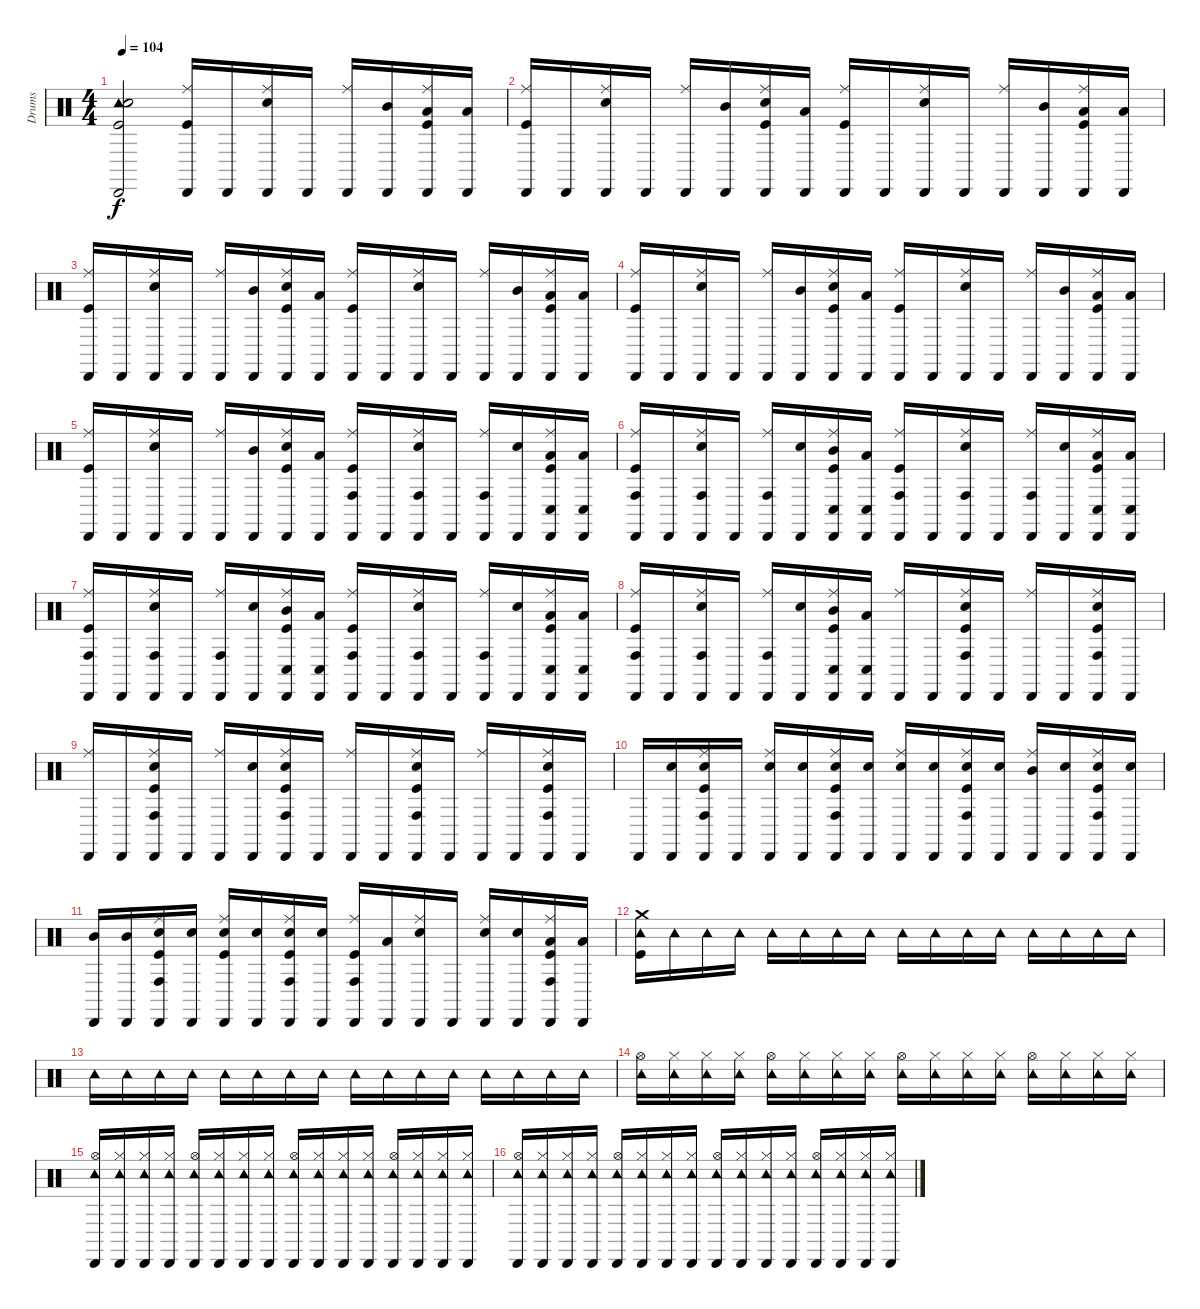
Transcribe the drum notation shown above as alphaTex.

\track ("Drums" "Drums") {instrument percussion}
\staff {score}
\articulation defaults
\ts (4 4)
\tempo 104
\clef neutral
\ks c
("Cabasa (hit)" "Tambourine (hit)" "Electric Snare (hit)" "Kick (hit)").2{dy f} ("Cabasa (hit)" "Ride (middle)" "Kick (hit)").16 "Cabasa (hit)".16 ("Cabasa (hit)" "Ride (middle)" "Electric Snare (hit)").16 "Cabasa (hit)".16 ("Cabasa (hit)" "Ride (middle)").16 ("Cabasa (hit)" "Mid Tom (hit)").16 ("Cabasa (hit)" "Ride (middle)" "Low Tom (hit)" "Kick (hit)").16 ("Cabasa (hit)" "Low Tom (hit)").16 |
("Cabasa (hit)" "Ride (middle)" "Kick (hit)").16 "Cabasa (hit)".16 ("Cabasa (hit)" "Ride (middle)" "Electric Snare (hit)").16 "Cabasa (hit)".16 ("Cabasa (hit)" "Ride (middle)").16 ("Cabasa (hit)" "Mid Tom (hit)").16 ("Cabasa (hit)" "Ride (middle)" "Electric Snare (hit)" "Kick (hit)").16 ("Cabasa (hit)" "Low Tom (hit)").16 ("Cabasa (hit)" "Ride (middle)" "Kick (hit)").16 "Cabasa (hit)".16 ("Cabasa (hit)" "Ride (middle)" "Electric Snare (hit)").16 "Cabasa (hit)".16 ("Cabasa (hit)" "Ride (middle)").16 ("Cabasa (hit)" "Mid Tom (hit)").16 ("Cabasa (hit)" "Ride (middle)" "Low Tom (hit)" "Kick (hit)").16 ("Cabasa (hit)" "Low Tom (hit)").16 |
("Cabasa (hit)" "Ride (middle)" "Kick (hit)").16 "Cabasa (hit)".16 ("Cabasa (hit)" "Ride (middle)" "Electric Snare (hit)").16 "Cabasa (hit)".16 ("Cabasa (hit)" "Ride (middle)").16 ("Cabasa (hit)" "Mid Tom (hit)").16 ("Cabasa (hit)" "Ride (middle)" "Electric Snare (hit)" "Kick (hit)").16 ("Cabasa (hit)" "Low Tom (hit)").16 ("Cabasa (hit)" "Ride (middle)" "Kick (hit)").16 "Cabasa (hit)".16 ("Cabasa (hit)" "Ride (middle)" "Electric Snare (hit)").16 "Cabasa (hit)".16 ("Cabasa (hit)" "Ride (middle)").16 ("Cabasa (hit)" "Mid Tom (hit)").16 ("Cabasa (hit)" "Ride (middle)" "Low Tom (hit)" "Kick (hit)").16 ("Cabasa (hit)" "Low Tom (hit)").16 |
("Cabasa (hit)" "Ride (middle)" "Kick (hit)").16 "Cabasa (hit)".16 ("Cabasa (hit)" "Ride (middle)" "Electric Snare (hit)").16 "Cabasa (hit)".16 ("Cabasa (hit)" "Ride (middle)").16 ("Cabasa (hit)" "Mid Tom (hit)").16 ("Cabasa (hit)" "Ride (middle)" "Electric Snare (hit)" "Kick (hit)").16 ("Cabasa (hit)" "Low Tom (hit)").16 ("Cabasa (hit)" "Ride (middle)" "Kick (hit)").16 "Cabasa (hit)".16 ("Cabasa (hit)" "Ride (middle)" "Electric Snare (hit)").16 "Cabasa (hit)".16 ("Cabasa (hit)" "Ride (middle)").16 ("Cabasa (hit)" "Mid Tom (hit)").16 ("Cabasa (hit)" "Ride (middle)" "Low Tom (hit)" "Kick (hit)").16 ("Cabasa (hit)" "Low Tom (hit)").16 |
("Cabasa (hit)" "Ride (middle)" "Kick (hit)").16 "Cabasa (hit)".16 ("Cabasa (hit)" "Ride (middle)" "Electric Snare (hit)").16 "Cabasa (hit)".16 ("Cabasa (hit)" "Ride (middle)").16 ("Cabasa (hit)" "Mid Tom (hit)").16 ("Cabasa (hit)" "Ride (middle)" "Electric Snare (hit)" "Kick (hit)").16 ("Cabasa (hit)" "Low Tom (hit)").16 ("Cabasa (hit)" "Ride (middle)" "Conga high (hit)" "Kick (hit)").16 "Cabasa (hit)".16 ("Cabasa (hit)" "Ride (middle)" "Conga high (hit)" "Electric Snare (hit)").16 "Cabasa (hit)".16 ("Cabasa (hit)" "Ride (middle)" "Conga high (hit)").16 ("Cabasa (hit)" "Electric Snare (hit)").16 ("Cabasa (hit)" "Ride (middle)" "Conga low (hit)" "Low Tom (hit)" "Kick (hit)").16 ("Cabasa (hit)" "Conga low (hit)" "Low Tom (hit)").16 |
("Cabasa (hit)" "Ride (middle)" "Conga high (hit)" "Kick (hit)").16 "Cabasa (hit)".16 ("Cabasa (hit)" "Ride (middle)" "Conga high (hit)" "Electric Snare (hit)").16 "Cabasa (hit)".16 ("Cabasa (hit)" "Ride (middle)" "Conga high (hit)").16 ("Cabasa (hit)" "Electric Snare (hit)").16 ("Cabasa (hit)" "Ride (middle)" "Conga low (hit)" "Mid Tom (hit)" "Kick (hit)").16 ("Cabasa (hit)" "Conga low (hit)" "Low Tom (hit)").16 ("Cabasa (hit)" "Ride (middle)" "Conga high (hit)" "Kick (hit)").16 "Cabasa (hit)".16 ("Cabasa (hit)" "Ride (middle)" "Conga high (hit)" "Electric Snare (hit)").16 "Cabasa (hit)".16 ("Cabasa (hit)" "Ride (middle)" "Conga high (hit)").16 ("Cabasa (hit)" "Electric Snare (hit)").16 ("Cabasa (hit)" "Ride (middle)" "Conga low (hit)" "Low Tom (hit)" "Kick (hit)").16 ("Cabasa (hit)" "Conga low (hit)" "Low Tom (hit)").16 |
("Cabasa (hit)" "Ride (middle)" "Conga high (hit)" "Kick (hit)").16 "Cabasa (hit)".16 ("Cabasa (hit)" "Ride (middle)" "Conga high (hit)" "Electric Snare (hit)").16 "Cabasa (hit)".16 ("Cabasa (hit)" "Ride (middle)" "Conga high (hit)").16 ("Cabasa (hit)" "Electric Snare (hit)").16 ("Cabasa (hit)" "Ride (middle)" "Conga low (hit)" "Mid Tom (hit)" "Kick (hit)").16 ("Cabasa (hit)" "Conga low (hit)" "Low Tom (hit)").16 ("Cabasa (hit)" "Ride (middle)" "Conga high (hit)" "Kick (hit)").16 "Cabasa (hit)".16 ("Cabasa (hit)" "Ride (middle)" "Conga high (hit)" "Electric Snare (hit)").16 "Cabasa (hit)".16 ("Cabasa (hit)" "Ride (middle)" "Conga high (hit)").16 ("Cabasa (hit)" "Electric Snare (hit)").16 ("Cabasa (hit)" "Ride (middle)" "Conga low (hit)" "Low Tom (hit)" "Kick (hit)").16 ("Cabasa (hit)" "Conga low (hit)" "Low Tom (hit)").16 |
("Cabasa (hit)" "Ride (middle)" "Conga high (hit)" "Kick (hit)").16 "Cabasa (hit)".16 ("Cabasa (hit)" "Ride (middle)" "Conga high (hit)" "Electric Snare (hit)").16 "Cabasa (hit)".16 ("Cabasa (hit)" "Ride (middle)" "Conga high (hit)").16 ("Cabasa (hit)" "Electric Snare (hit)").16 ("Cabasa (hit)" "Ride (middle)" "Conga low (hit)" "Mid Tom (hit)" "Kick (hit)").16 ("Cabasa (hit)" "Conga low (hit)" "Low Tom (hit)").16 ("Cabasa (hit)" "Ride (middle)").16 "Cabasa (hit)".16 ("Cabasa (hit)" "Ride (middle)" "Conga high (hit)" "Electric Snare (hit)" "Kick (hit)").16 "Cabasa (hit)".16 ("Cabasa (hit)" "Ride (middle)").16 "Cabasa (hit)".16 ("Cabasa (hit)" "Ride (middle)" "Conga high (hit)" "Electric Snare (hit)" "Kick (hit)").16 "Cabasa (hit)".16 |
("Cabasa (hit)" "Ride (middle)").16 "Cabasa (hit)".16 ("Cabasa (hit)" "Ride (middle)" "Conga high (hit)" "Electric Snare (hit)" "Kick (hit)").16 "Cabasa (hit)".16 ("Cabasa (hit)" "Ride (middle)").16 ("Cabasa (hit)" "Electric Snare (hit)").16 ("Cabasa (hit)" "Ride (middle)" "Conga high (hit)" "Electric Snare (hit)" "Kick (hit)").16 "Cabasa (hit)".16 ("Cabasa (hit)" "Ride (middle)").16 "Cabasa (hit)".16 ("Cabasa (hit)" "Ride (middle)" "Conga high (hit)" "Electric Snare (hit)" "Kick (hit)").16 "Cabasa (hit)".16 ("Cabasa (hit)" "Ride (middle)").16 "Cabasa (hit)".16 ("Cabasa (hit)" "Ride (middle)" "Conga high (hit)" "Electric Snare (hit)" "Kick (hit)").16 "Cabasa (hit)".16 |
"Cabasa (hit)".16 ("Cabasa (hit)" "Electric Snare (hit)").16 ("Cabasa (hit)" "Ride (middle)" "Conga high (hit)" "Electric Snare (hit)" "Kick (hit)").16 "Cabasa (hit)".16 ("Cabasa (hit)" "Ride (middle)" "Electric Snare (hit)").16 ("Cabasa (hit)" "Electric Snare (hit)").16 ("Cabasa (hit)" "Ride (middle)" "Conga high (hit)" "Electric Snare (hit)" "Kick (hit)").16 ("Cabasa (hit)" "Electric Snare (hit)").16 ("Cabasa (hit)" "Ride (middle)" "Electric Snare (hit)").16 ("Cabasa (hit)" "Electric Snare (hit)").16 ("Cabasa (hit)" "Ride (middle)" "Conga high (hit)" "Electric Snare (hit)" "Kick (hit)").16 ("Cabasa (hit)" "Electric Snare (hit)").16 ("Cabasa (hit)" "Ride (middle)" "Mid Tom (hit)").16 ("Cabasa (hit)" "Electric Snare (hit)").16 ("Cabasa (hit)" "Ride (middle)" "Conga high (hit)" "Electric Snare (hit)" "Kick (hit)").16 ("Cabasa (hit)" "Electric Snare (hit)").16 |
("Cabasa (hit)" "Mid Tom (hit)").16 ("Cabasa (hit)" "Mid Tom (hit)").16 ("Cabasa (hit)" "Ride (middle)" "Conga high (hit)" "Electric Snare (hit)" "Kick (hit)").16 ("Cabasa (hit)" "Electric Snare (hit)").16 ("Cabasa (hit)" "Ride (middle)" "Electric Snare (hit)" "Kick (hit)").16 ("Cabasa (hit)" "Electric Snare (hit)").16 ("Cabasa (hit)" "Ride (middle)" "Conga high (hit)" "Electric Snare (hit)" "Kick (hit)").16 ("Cabasa (hit)" "Electric Snare (hit)").16 ("Cabasa (hit)" "Ride (middle)" "Conga high (hit)" "Kick (hit)").16 ("Cabasa (hit)" "Low Tom (hit)").16 ("Cabasa (hit)" "Ride (middle)" "Electric Snare (hit)").16 "Cabasa (hit)".16 ("Cabasa (hit)" "Ride (middle)" "Electric Snare (hit)").16 ("Cabasa (hit)" "Electric Snare (hit)").16 ("Cabasa (hit)" "Ride (middle)" "Conga high (hit)" "Low Tom (hit)" "Kick (hit)").16 ("Cabasa (hit)" "Low Tom (hit)").16 |
("Crash medium (hit)" "Tambourine (hit)" "Kick (hit)").16 "Tambourine (hit)".16 "Tambourine (hit)".16 "Tambourine (hit)".16 "Tambourine (hit)".16 "Tambourine (hit)".16 "Tambourine (hit)".16 "Tambourine (hit)".16 "Tambourine (hit)".16 "Tambourine (hit)".16 "Tambourine (hit)".16 "Tambourine (hit)".16 "Tambourine (hit)".16 "Tambourine (hit)".16 "Tambourine (hit)".16 "Tambourine (hit)".16 |
"Tambourine (hit)".16 "Tambourine (hit)".16 "Tambourine (hit)".16 "Tambourine (hit)".16 "Tambourine (hit)".16 "Tambourine (hit)".16 "Tambourine (hit)".16 "Tambourine (hit)".16 "Tambourine (hit)".16 "Tambourine (hit)".16 "Tambourine (hit)".16 "Tambourine (hit)".16 "Tambourine (hit)".16 "Tambourine (hit)".16 "Tambourine (hit)".16 "Tambourine (hit)".16 |
("Hi-Hat (open)" "Tambourine (hit)").16 ("Hi-Hat (closed)" "Tambourine (hit)").16 ("Hi-Hat (closed)" "Tambourine (hit)").16 ("Hi-Hat (closed)" "Tambourine (hit)").16 ("Hi-Hat (open)" "Tambourine (hit)").16 ("Hi-Hat (closed)" "Tambourine (hit)").16 ("Hi-Hat (closed)" "Tambourine (hit)").16 ("Hi-Hat (closed)" "Tambourine (hit)").16 ("Hi-Hat (open)" "Tambourine (hit)").16 ("Hi-Hat (closed)" "Tambourine (hit)").16 ("Hi-Hat (closed)" "Tambourine (hit)").16 ("Hi-Hat (closed)" "Tambourine (hit)").16 ("Hi-Hat (open)" "Tambourine (hit)").16 ("Hi-Hat (closed)" "Tambourine (hit)").16 ("Hi-Hat (closed)" "Tambourine (hit)").16 ("Hi-Hat (closed)" "Tambourine (hit)").16 |
("Cabasa (hit)" "Hi-Hat (open)" "Tambourine (hit)").16 ("Cabasa (hit)" "Hi-Hat (closed)" "Tambourine (hit)").16 ("Cabasa (hit)" "Hi-Hat (closed)" "Tambourine (hit)").16 ("Cabasa (hit)" "Hi-Hat (closed)" "Tambourine (hit)").16 ("Cabasa (hit)" "Hi-Hat (open)" "Tambourine (hit)").16 ("Cabasa (hit)" "Hi-Hat (closed)" "Tambourine (hit)").16 ("Cabasa (hit)" "Hi-Hat (closed)" "Tambourine (hit)").16 ("Cabasa (hit)" "Hi-Hat (closed)" "Tambourine (hit)").16 ("Cabasa (hit)" "Hi-Hat (open)" "Tambourine (hit)").16 ("Cabasa (hit)" "Hi-Hat (closed)" "Tambourine (hit)").16 ("Cabasa (hit)" "Hi-Hat (closed)" "Tambourine (hit)").16 ("Cabasa (hit)" "Hi-Hat (closed)" "Tambourine (hit)").16 ("Cabasa (hit)" "Hi-Hat (open)" "Tambourine (hit)").16 ("Cabasa (hit)" "Hi-Hat (closed)" "Tambourine (hit)").16 ("Cabasa (hit)" "Hi-Hat (closed)" "Tambourine (hit)").16 ("Cabasa (hit)" "Hi-Hat (closed)" "Tambourine (hit)").16 |
("Cabasa (hit)" "Hi-Hat (open)" "Tambourine (hit)").16 ("Cabasa (hit)" "Hi-Hat (closed)" "Tambourine (hit)").16 ("Cabasa (hit)" "Hi-Hat (closed)" "Tambourine (hit)").16 ("Cabasa (hit)" "Hi-Hat (closed)" "Tambourine (hit)").16 ("Cabasa (hit)" "Hi-Hat (open)" "Tambourine (hit)").16 ("Cabasa (hit)" "Hi-Hat (closed)" "Tambourine (hit)").16 ("Cabasa (hit)" "Hi-Hat (closed)" "Tambourine (hit)").16 ("Cabasa (hit)" "Hi-Hat (closed)" "Tambourine (hit)").16 ("Cabasa (hit)" "Hi-Hat (open)" "Tambourine (hit)").16 ("Cabasa (hit)" "Hi-Hat (closed)" "Tambourine (hit)").16 ("Cabasa (hit)" "Hi-Hat (closed)" "Tambourine (hit)").16 ("Cabasa (hit)" "Hi-Hat (closed)" "Tambourine (hit)").16 ("Cabasa (hit)" "Hi-Hat (open)" "Tambourine (hit)").16 ("Cabasa (hit)" "Hi-Hat (closed)" "Tambourine (hit)").16 ("Cabasa (hit)" "Hi-Hat (closed)" "Tambourine (hit)").16 ("Cabasa (hit)" "Hi-Hat (closed)" "Tambourine (hit)").16
